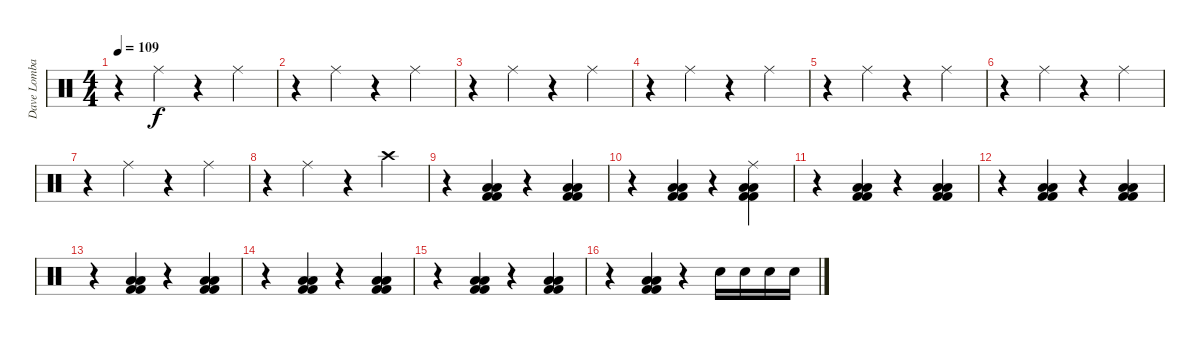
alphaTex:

\track ("Dave Lombardo" "Dave Lomba") {instrument percussion}
\staff {score}
\articulation defaults
\ts (4 4)
\tempo 109
\clef neutral
\ks c
r.4{dy f} "Ride (middle)".4 r.4 "Ride (middle)".4 |
r.4 "Ride (middle)".4 r.4 "Ride (middle)".4 |
r.4 "Ride (middle)".4 r.4 "Ride (middle)".4 |
r.4 "Ride (middle)".4 r.4 "Ride (middle)".4 |
r.4 "Ride (middle)".4 r.4 "Ride (middle)".4 |
r.4 "Ride (middle)".4 r.4 "Ride (middle)".4 |
r.4 "Ride (middle)".4 r.4 "Ride (middle)".4 |
r.4 "Ride (middle)".4 r.4 "Crash high (hit)".4 |
r.4 ("Low Floor Tom (hit)" "Low Floor Tom (hit)" "Kick (hit) 2" "Kick (hit) 2").4 r.4 ("Low Floor Tom (hit)" "Low Floor Tom (hit)" "Kick (hit) 2" "Kick (hit) 2").4 |
r.4 ("Low Floor Tom (hit)" "Low Floor Tom (hit)" "Kick (hit) 2" "Kick (hit) 2").4 r.4 ("Ride (middle)" "Low Floor Tom (hit)" "Low Floor Tom (hit)" "Kick (hit) 2" "Kick (hit) 2").4 |
r.4 ("Low Floor Tom (hit)" "Low Floor Tom (hit)" "Kick (hit) 2" "Kick (hit) 2").4 r.4 ("Low Floor Tom (hit)" "Low Floor Tom (hit)" "Kick (hit) 2" "Kick (hit) 2").4 |
r.4 ("Low Floor Tom (hit)" "Low Floor Tom (hit)" "Kick (hit) 2" "Kick (hit) 2").4 r.4 ("Low Floor Tom (hit)" "Low Floor Tom (hit)" "Kick (hit) 2" "Kick (hit) 2").4 |
r.4 ("Low Floor Tom (hit)" "Low Floor Tom (hit)" "Kick (hit) 2" "Kick (hit) 2").4 r.4 ("Low Floor Tom (hit)" "Low Floor Tom (hit)" "Kick (hit) 2" "Kick (hit) 2").4 |
r.4 ("Low Floor Tom (hit)" "Low Floor Tom (hit)" "Kick (hit) 2" "Kick (hit) 2").4 r.4 ("Low Floor Tom (hit)" "Low Floor Tom (hit)" "Kick (hit) 2" "Kick (hit) 2").4 |
r.4 ("Low Floor Tom (hit)" "Low Floor Tom (hit)" "Kick (hit) 2" "Kick (hit) 2").4 r.4 ("Low Floor Tom (hit)" "Low Floor Tom (hit)" "Kick (hit) 2" "Kick (hit) 2").4 |
r.4 ("Low Floor Tom (hit)" "Low Floor Tom (hit)" "Kick (hit) 2" "Kick (hit) 2").4 r.4 "Electric Snare (hit)".16 "Electric Snare (hit)".16 "Electric Snare (hit)".16 "Electric Snare (hit)".16
